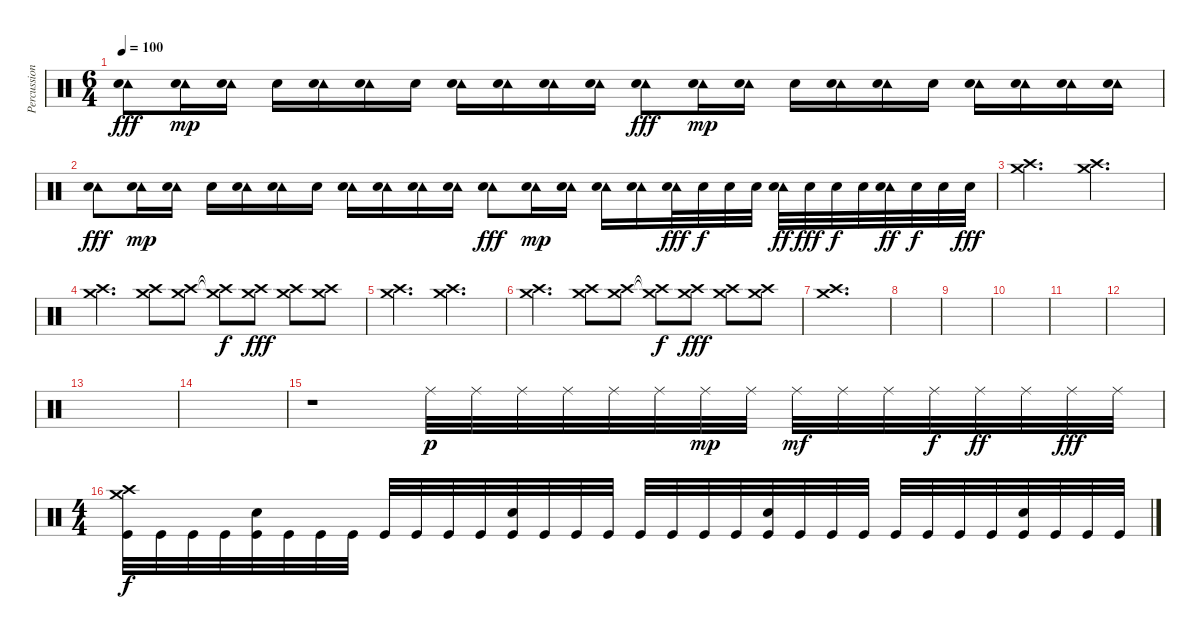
\track ("Percussion" "Percussion") {instrument percussion}
\staff {score}
\articulation defaults
\ts (6 4)
\tempo 100
\clef neutral
\ks c
("Tambourine (hit)" "Electric Snare (hit)").8{dy fff} ("Tambourine (hit)" "Electric Snare (hit)").16{dy mp} ("Tambourine (hit)" "Electric Snare (hit)").16 "Electric Snare (hit)".16 ("Tambourine (hit)" "Electric Snare (hit)").16 ("Tambourine (hit)" "Electric Snare (hit)").16 "Electric Snare (hit)".16 ("Tambourine (hit)" "Electric Snare (hit)").16 ("Tambourine (hit)" "Electric Snare (hit)").16 ("Tambourine (hit)" "Electric Snare (hit)").16 ("Tambourine (hit)" "Electric Snare (hit)").16 ("Tambourine (hit)" "Electric Snare (hit)").8{dy fff} ("Tambourine (hit)" "Electric Snare (hit)").16{dy mp} ("Tambourine (hit)" "Electric Snare (hit)").16 "Electric Snare (hit)".16 ("Tambourine (hit)" "Electric Snare (hit)").16 ("Tambourine (hit)" "Electric Snare (hit)").16 "Electric Snare (hit)".16 ("Tambourine (hit)" "Electric Snare (hit)").16 ("Tambourine (hit)" "Electric Snare (hit)").16 ("Tambourine (hit)" "Electric Snare (hit)").16 ("Tambourine (hit)" "Electric Snare (hit)").16 |
("Tambourine (hit)" "Electric Snare (hit)").8{dy fff} ("Tambourine (hit)" "Electric Snare (hit)").16{dy mp} ("Tambourine (hit)" "Electric Snare (hit)").16 "Electric Snare (hit)".16 ("Tambourine (hit)" "Electric Snare (hit)").16 ("Tambourine (hit)" "Electric Snare (hit)").16 "Electric Snare (hit)".16 ("Tambourine (hit)" "Electric Snare (hit)").16 ("Tambourine (hit)" "Electric Snare (hit)").16 ("Tambourine (hit)" "Electric Snare (hit)").16 ("Tambourine (hit)" "Electric Snare (hit)").16 ("Tambourine (hit)" "Electric Snare (hit)").8{dy fff} ("Tambourine (hit)" "Electric Snare (hit)").16{dy mp} ("Tambourine (hit)" "Electric Snare (hit)").16 ("Tambourine (hit)" "Electric Snare (hit)").16 ("Tambourine (hit)" "Electric Snare (hit)").16 ("Tambourine (hit)" "Electric Snare (hit)").32{dy fff} "Electric Snare (hit)".32{dy f} "Electric Snare (hit)".32 "Electric Snare (hit)".32 ("Tambourine (hit)" "Electric Snare (hit)").32{dy ff} "Electric Snare (hit)".32{dy fff} "Electric Snare (hit)".32{dy f} "Electric Snare (hit)".32 ("Tambourine (hit)" "Electric Snare (hit)").32{dy ff} "Electric Snare (hit)".32{dy f} "Electric Snare (hit)".32 "Electric Snare (hit)".32{dy fff} |
("Crash medium (hit)" "Crash high (hit)").2{d} ("Crash medium (hit)" "Crash high (hit)").2{d} |
("Crash medium (hit)" "Crash high (hit)").2{d} ("Crash medium (hit)" "Crash high (hit)").8 ("Crash high (hit)" "Crash medium (hit)").8 ("Crash high (hit)"{t} "Crash medium (hit)"{t}).8{dy f} ("Crash medium (hit)" "Crash high (hit)").8{dy fff} ("Crash medium (hit)" "Crash high (hit)").8 ("Crash high (hit)" "Crash medium (hit)").8 |
("Crash medium (hit)" "Crash high (hit)").2{d} ("Crash medium (hit)" "Crash high (hit)").2{d} |
("Crash medium (hit)" "Crash high (hit)").2{d} ("Crash medium (hit)" "Crash high (hit)").8 ("Crash high (hit)" "Crash medium (hit)").8 ("Crash high (hit)"{t} "Crash medium (hit)"{t}).8{dy f} ("Crash medium (hit)" "Crash high (hit)").8{dy fff} ("Crash medium (hit)" "Crash high (hit)").8 ("Crash high (hit)" "Crash medium (hit)").8 |
("Crash high (hit)" "Crash medium (hit)").1{d} |
|
|
|
|
|
|
|
r.1 "Ride (middle)".32{dy p} "Ride (middle)".32 "Ride (middle)".32 "Ride (middle)".32 "Ride (middle)".32 "Ride (middle)".32 "Ride (middle)".32{dy mp} "Ride (middle)".32 "Ride (middle)".32{dy mf} "Ride (middle)".32 "Ride (middle)".32 "Ride (middle)".32{dy f} "Ride (middle)".32{dy ff} "Ride (middle)".32 "Ride (middle)".32{dy fff} "Ride (middle)".32 |
\ts (4 4)
("Crash medium (hit)" "Crash high (hit)" "Kick (hit)").32{dy f} "Kick (hit)".32 "Kick (hit)".32 "Kick (hit)".32 ("Snare (hit) 2" "Kick (hit)").32 "Kick (hit)".32 "Kick (hit)".32 "Kick (hit)".32 "Kick (hit)".32 "Kick (hit)".32 "Kick (hit)".32 "Kick (hit)".32 ("Snare (hit) 2" "Kick (hit)").32 "Kick (hit)".32 "Kick (hit)".32 "Kick (hit)".32 "Kick (hit)".32 "Kick (hit)".32 "Kick (hit)".32 "Kick (hit)".32 ("Snare (hit) 2" "Kick (hit)").32 "Kick (hit)".32 "Kick (hit)".32 "Kick (hit)".32 "Kick (hit)".32 "Kick (hit)".32 "Kick (hit)".32 "Kick (hit)".32 ("Snare (hit) 2" "Kick (hit)").32 "Kick (hit)".32 "Kick (hit)".32 "Kick (hit)".32
